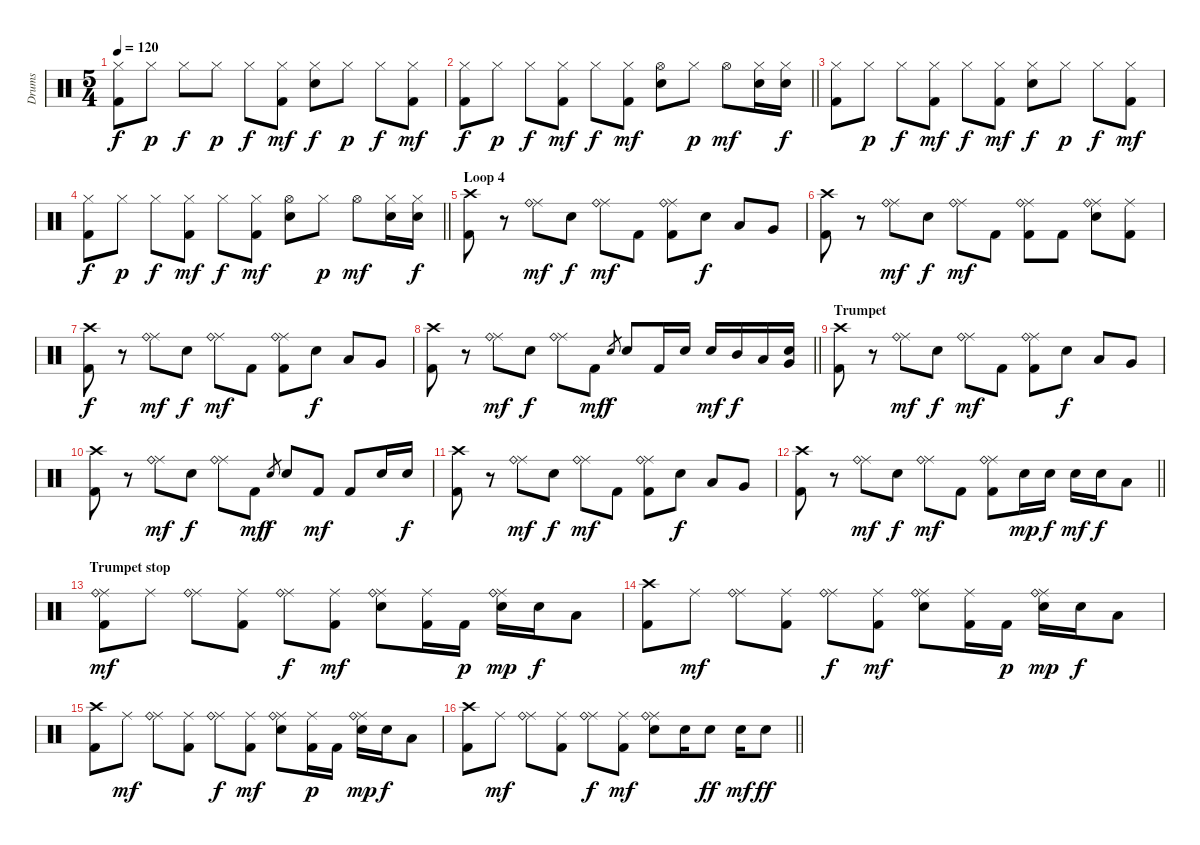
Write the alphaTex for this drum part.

\track ("Drums" "Drums") {instrument percussion}
\staff {score}
\articulation defaults
\ts (5 4)
\tempo 120
\clef neutral
\ks c
("Hi-Hat (closed)" "Kick (hit) 2").8{dy f} "Hi-Hat (closed)".8{dy p} "Hi-Hat (closed)".8{dy f} "Hi-Hat (closed)".8{dy p} "Hi-Hat (closed)".8{dy f} ("Hi-Hat (closed)" "Kick (hit) 2").8{dy mf} ("Hi-Hat (closed)" "Electric Snare (hit)").8{dy f} "Hi-Hat (closed)".8{dy p} "Hi-Hat (closed)".8{dy f} ("Hi-Hat (closed)" "Kick (hit) 2").8{dy mf} |
\barLineRight lightlight
("Hi-Hat (closed)" "Kick (hit) 2").8{dy f} "Hi-Hat (closed)".8{dy p} "Hi-Hat (closed)".8{dy f} ("Hi-Hat (closed)" "Kick (hit) 2").8{dy mf} "Hi-Hat (closed)".8{dy f} ("Hi-Hat (closed)" "Kick (hit) 2").8{dy mf} ("Hi-Hat (open)" "Electric Snare (hit)").8 "Hi-Hat (closed)".8{dy p} "Hi-Hat (open)".8{dy mf} ("Hi-Hat (closed)" "Electric Snare (hit)").16 ("Hi-Hat (closed)" "Electric Snare (hit)").16{dy f} |
("Hi-Hat (closed)" "Kick (hit) 2").8 "Hi-Hat (closed)".8{dy p} "Hi-Hat (closed)".8{dy f} ("Hi-Hat (closed)" "Kick (hit) 2").8{dy mf} "Hi-Hat (closed)".8{dy f} ("Hi-Hat (closed)" "Kick (hit) 2").8{dy mf} ("Hi-Hat (closed)" "Electric Snare (hit)").8{dy f} "Hi-Hat (closed)".8{dy p} "Hi-Hat (closed)".8{dy f} ("Hi-Hat (closed)" "Kick (hit) 2").8{dy mf} |
\barLineRight lightlight
("Hi-Hat (closed)" "Kick (hit) 2").8{dy f} "Hi-Hat (closed)".8{dy p} "Hi-Hat (closed)".8{dy f} ("Hi-Hat (closed)" "Kick (hit) 2").8{dy mf} "Hi-Hat (closed)".8{dy f} ("Hi-Hat (closed)" "Kick (hit) 2").8{dy mf} ("Hi-Hat (open)" "Electric Snare (hit)").8 "Hi-Hat (closed)".8{dy p} "Hi-Hat (open)".8{dy mf} ("Hi-Hat (closed)" "Electric Snare (hit)").16 ("Hi-Hat (closed)" "Electric Snare (hit)").16{dy f} |
\section ("" "Loop 4")
("Crash high (hit)" "Kick (hit) 2").8 r.8 ("Ride (middle)" "Ride (bell)").8{dy mf} "Electric Snare (hit)".8{dy f} ("Ride (middle)" "Ride (bell)").8{dy mf} "Kick (hit) 2".8 ("Ride (middle)" "Ride (bell)" "Kick (hit) 2").8 "Electric Snare (hit)".8{dy f} "Low Tom (hit)".8 "Very Low Tom (hit)".8 |
("Crash high (hit)" "Kick (hit) 2").8 r.8 ("Ride (middle)" "Ride (bell)").8{dy mf} "Electric Snare (hit)".8{dy f} ("Ride (middle)" "Ride (bell)").8{dy mf} "Kick (hit) 2".8 ("Ride (middle)" "Ride (bell)" "Kick (hit) 2").8 "Kick (hit) 2".8 ("Ride (middle)" "Ride (bell)" "Electric Snare (hit)").8 ("Ride (middle)" "Kick (hit) 2").8 |
("Crash high (hit)" "Kick (hit) 2").8{dy f} r.8 ("Ride (middle)" "Ride (bell)").8{dy mf} "Electric Snare (hit)".8{dy f} ("Ride (middle)" "Ride (bell)").8{dy mf} "Kick (hit) 2".8 ("Ride (middle)" "Ride (bell)" "Kick (hit) 2").8 "Electric Snare (hit)".8{dy f} "Low Tom (hit)".8 "Very Low Tom (hit)".8 |
\barLineRight lightlight
("Crash high (hit)" "Kick (hit) 2").8 r.8 ("Ride (middle)" "Ride (bell)").8{dy mf} "Electric Snare (hit)".8{dy f} ("Ride (middle)" "Ride (bell)").8 "Kick (hit) 2".8{dy mf} "Electric Snare (hit)".8{gr dy f} "Electric Snare (hit)".8 "Kick (hit) 2".16 "Electric Snare (hit)".16 "Electric Snare (hit)".16{dy mf} "Mid Tom (hit)".16{dy f} "Low Tom (hit)".16 ("Electric Snare (hit)" "Very Low Tom (hit)").16 |
\section ("" "Trumpet")
("Crash high (hit)" "Kick (hit) 2").8 r.8 ("Ride (middle)" "Ride (bell)").8{dy mf} "Electric Snare (hit)".8{dy f} ("Ride (middle)" "Ride (bell)").8{dy mf} "Kick (hit) 2".8 ("Ride (middle)" "Ride (bell)" "Kick (hit) 2").8 "Electric Snare (hit)".8{dy f} "Low Tom (hit)".8 "Very Low Tom (hit)".8 |
("Crash high (hit)" "Kick (hit) 2").8 r.8 ("Ride (middle)" "Ride (bell)").8{dy mf} "Electric Snare (hit)".8{dy f} ("Ride (middle)" "Ride (bell)").8 "Kick (hit) 2".8{dy mf} "Electric Snare (hit)".8{gr dy f} "Electric Snare (hit)".8 "Kick (hit) 2".8{dy mf} "Kick (hit) 2".8 "Electric Snare (hit)".16 "Electric Snare (hit)".16{dy f} |
("Crash high (hit)" "Kick (hit) 2").8 r.8 ("Ride (middle)" "Ride (bell)").8{dy mf} "Electric Snare (hit)".8{dy f} ("Ride (middle)" "Ride (bell)").8{dy mf} "Kick (hit) 2".8 ("Ride (middle)" "Ride (bell)" "Kick (hit) 2").8 "Electric Snare (hit)".8{dy f} "Low Tom (hit)".8 "Very Low Tom (hit)".8 |
\barLineRight lightlight
("Crash high (hit)" "Kick (hit) 2").8 r.8 ("Ride (middle)" "Ride (bell)").8{dy mf} "Electric Snare (hit)".8{dy f} ("Ride (middle)" "Ride (bell)").8{dy mf} "Kick (hit) 2".8 ("Ride (middle)" "Ride (bell)" "Kick (hit) 2").8 "Electric Snare (hit)".16{dy mp} "Electric Snare (hit)".16{dy f} "Electric Snare (hit)".16{dy mf} "Electric Snare (hit)".16{dy f} "Low Tom (hit)".8 |
\section ("" "Trumpet stop")
("Ride (middle)" "Ride (bell)" "Kick (hit) 2").8{dy mf} "Ride (middle)".8 ("Ride (middle)" "Ride (bell)").8 ("Ride (middle)" "Kick (hit) 2").8 ("Ride (middle)" "Ride (bell)").8{dy f} ("Ride (middle)" "Kick (hit) 2").8{dy mf} ("Ride (middle)" "Ride (bell)" "Electric Snare (hit)").8 ("Ride (middle)" "Kick (hit) 2").16 "Kick (hit) 2".16{dy p} ("Ride (middle)" "Ride (bell)" "Electric Snare (hit)").16{dy mp} "Electric Snare (hit)".16{dy f} "Low Tom (hit)".8 |
("Crash high (hit)" "Kick (hit) 2").8 "Ride (middle)".8{dy mf} ("Ride (middle)" "Ride (bell)").8 ("Ride (middle)" "Kick (hit) 2").8 ("Ride (middle)" "Ride (bell)").8{dy f} ("Ride (middle)" "Kick (hit) 2").8{dy mf} ("Ride (middle)" "Ride (bell)" "Electric Snare (hit)").8 ("Ride (middle)" "Kick (hit) 2").16 "Kick (hit) 2".16{dy p} ("Ride (middle)" "Ride (bell)" "Electric Snare (hit)").16{dy mp} "Electric Snare (hit)".16{dy f} "Low Tom (hit)".8 |
("Crash high (hit)" "Kick (hit) 2").8 "Ride (middle)".8{dy mf} ("Ride (middle)" "Ride (bell)").8 ("Ride (middle)" "Kick (hit) 2").8 ("Ride (middle)" "Ride (bell)").8{dy f} ("Ride (middle)" "Kick (hit) 2").8{dy mf} ("Ride (middle)" "Ride (bell)" "Electric Snare (hit)").8 ("Ride (middle)" "Kick (hit) 2").16{dy p} "Kick (hit) 2".16 ("Ride (middle)" "Ride (bell)" "Electric Snare (hit)").16{dy mp} "Electric Snare (hit)".16{dy f} "Low Tom (hit)".8 |
\barLineRight lightlight
("Crash high (hit)" "Kick (hit) 2").8 "Ride (middle)".8{dy mf} ("Ride (middle)" "Ride (bell)").8 ("Ride (middle)" "Kick (hit) 2").8 ("Ride (middle)" "Ride (bell)").8{dy f} ("Ride (middle)" "Kick (hit) 2").8{dy mf} ("Ride (middle)" "Ride (bell)" "Electric Snare (hit)").8 "Electric Snare (hit)".16 "Electric Snare (hit)".8{dy ff} "Electric Snare (hit)".16{dy mf} "Electric Snare (hit)".8{dy ff}
